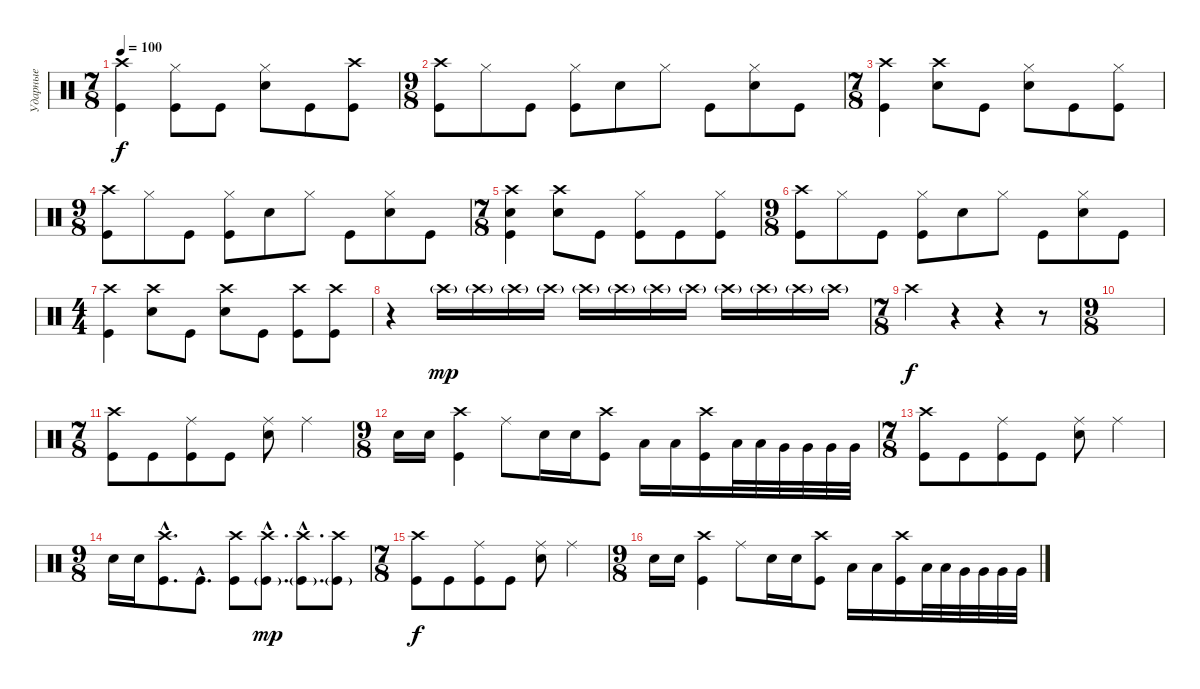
\track ("Ударные" "Ударные") {instrument percussion}
\staff {score}
\articulation defaults
\ts (7 8)
\tempo 100
\clef neutral
\ks c
("Crash high (hit)" "Kick (hit)").4{dy f} ("Hi-Hat (closed)" "Kick (hit)").8 "Kick (hit)".8 ("Hi-Hat (closed)" "Electric Snare (hit)").8 "Kick (hit)".8 ("Crash high (hit)" "Kick (hit)").8 |
\ts (9 8)
("Crash high (hit)" "Kick (hit)").8 "Hi-Hat (closed)".8 "Kick (hit)".8 ("Hi-Hat (closed)" "Kick (hit)").8 "Electric Snare (hit)".8 "Hi-Hat (closed)".8 "Kick (hit)".8 ("Hi-Hat (closed)" "Electric Snare (hit)").8 "Kick (hit)".8 |
\ts (7 8)
("Crash high (hit)" "Kick (hit)").4 ("Crash high (hit)" "Electric Snare (hit)").8 "Kick (hit)".8 ("Hi-Hat (closed)" "Electric Snare (hit)").8 "Kick (hit)".8 ("Hi-Hat (closed)" "Kick (hit)").8 |
\ts (9 8)
("Crash high (hit)" "Kick (hit)").8 "Hi-Hat (closed)".8 "Kick (hit)".8 ("Hi-Hat (closed)" "Kick (hit)").8 "Electric Snare (hit)".8 "Hi-Hat (closed)".8 "Kick (hit)".8 ("Hi-Hat (closed)" "Electric Snare (hit)").8 "Kick (hit)".8 |
\ts (7 8)
("Crash high (hit)" "Electric Snare (hit)" "Kick (hit)").4 ("Crash high (hit)" "Electric Snare (hit)").8 "Kick (hit)".8 ("Hi-Hat (closed)" "Kick (hit)").8 "Kick (hit)".8 ("Hi-Hat (closed)" "Kick (hit)").8 |
\ts (9 8)
("Crash high (hit)" "Kick (hit)").8 "Hi-Hat (closed)".8 "Kick (hit)".8 ("Hi-Hat (closed)" "Kick (hit)").8 "Electric Snare (hit)".8 "Hi-Hat (closed)".8 "Kick (hit)".8 ("Hi-Hat (closed)" "Electric Snare (hit)").8 "Kick (hit)".8 |
\ts (4 4)
("Crash high (hit)" "Kick (hit)").4 ("Crash high (hit)" "Electric Snare (hit)").8 "Kick (hit)".8 ("Crash high (hit)" "Electric Snare (hit)").8 "Kick (hit)".8 ("Crash high (hit)" "Kick (hit)").8 ("Crash high (hit)" "Kick (hit)").8 |
r.4 "Crash high (hit)"{g}.16{dy mp} "Crash high (hit)"{g}.16 "Crash high (hit)"{g}.16 "Crash high (hit)"{g}.16 "Crash high (hit)"{g}.16 "Crash high (hit)"{g}.16 "Crash high (hit)"{g}.16 "Crash high (hit)"{g}.16 "Crash high (hit)"{g}.16 "Crash high (hit)"{g}.16 "Crash high (hit)"{g}.16 "Crash high (hit)"{g}.16 |
\ts (7 8)
"Crash high (hit)".4{dy f} r.4 r.4 r.8 |
\ts (9 8)
|
\ts (7 8)
("Crash high (hit)" "Kick (hit)").8 "Kick (hit)".8 ("Ride (middle)" "Kick (hit)").8 "Kick (hit)".8 ("Ride (middle)" "Electric Snare (hit)").8 "Ride (middle)".4 |
\ts (9 8)
"Electric Snare (hit)".16 "Electric Snare (hit)".16 ("Crash high (hit)" "Kick (hit)").4 "Ride (middle)".8 "Electric Snare (hit)".16 "Electric Snare (hit)".16 ("Crash high (hit)" "Kick (hit)").8 "Low Tom (hit)".16 "Low Tom (hit)".16 ("Crash high (hit)" "Kick (hit)").16 "Low Tom (hit)".32 "Low Tom (hit)".32 "Very Low Tom (hit)".32 "Very Low Tom (hit)".32 "Very Low Tom (hit)".32 "Very Low Tom (hit)".32 |
\ts (7 8)
("Crash high (hit)" "Kick (hit)").8 "Kick (hit)".8 ("Ride (middle)" "Kick (hit)").8 "Kick (hit)".8 ("Ride (middle)" "Electric Snare (hit)").8 "Ride (middle)".4 |
\ts (9 8)
"Electric Snare (hit)".16 "Electric Snare (hit)".16 ("Crash high (hit)"{hac} "Kick (hit)"{hac}).8{d} "Kick (hit)"{hac}.8{d} ("Crash high (hit)" "Kick (hit)").8 ("Crash high (hit)"{hac} "Kick (hit)"{g hac}).8{d dy mp} ("Crash high (hit)"{hac} "Kick (hit)"{g hac}).8{d} ("Crash high (hit)" "Kick (hit)"{g}).8 |
\ts (7 8)
("Crash high (hit)" "Kick (hit)").8{dy f} "Kick (hit)".8 ("Ride (middle)" "Kick (hit)").8 "Kick (hit)".8 ("Ride (middle)" "Electric Snare (hit)").8 "Ride (middle)".4 |
\ts (9 8)
"Electric Snare (hit)".16 "Electric Snare (hit)".16 ("Crash high (hit)" "Kick (hit)").4 "Ride (middle)".8 "Electric Snare (hit)".16 "Electric Snare (hit)".16 ("Crash high (hit)" "Kick (hit)").8 "Low Tom (hit)".16 "Low Tom (hit)".16 ("Crash high (hit)" "Kick (hit)").16 "Low Tom (hit)".32 "Low Tom (hit)".32 "Very Low Tom (hit)".32 "Very Low Tom (hit)".32 "Very Low Tom (hit)".32 "Very Low Tom (hit)".32
